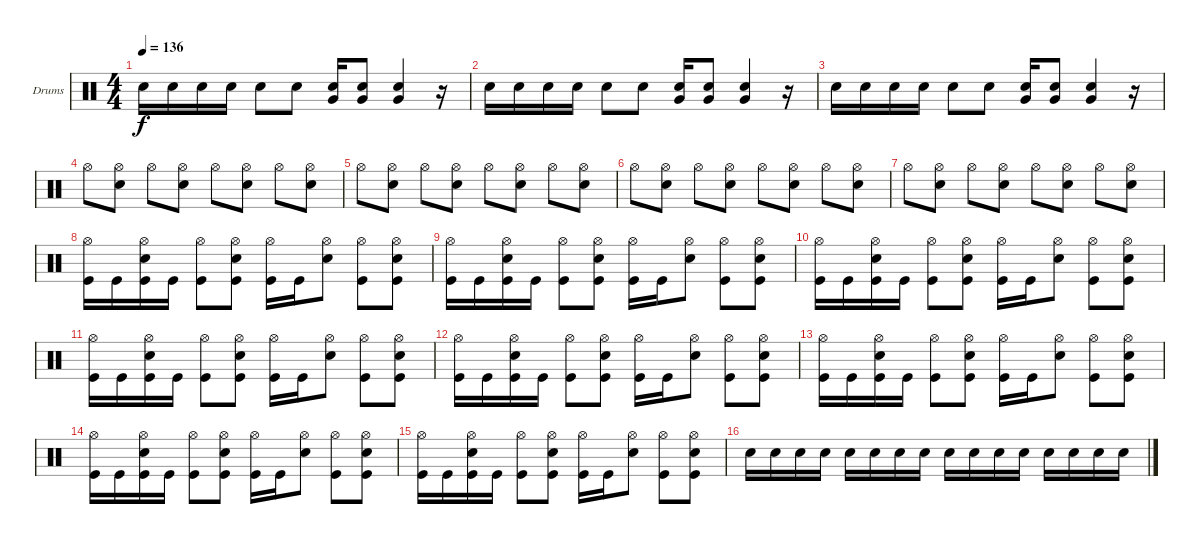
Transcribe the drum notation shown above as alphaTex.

\defaultSystemsLayout 4
\bracketExtendMode groupsimilarinstruments
\firstSystemTrackNameOrientation horizontal
\otherSystemsTrackNameOrientation horizontal
\track ("Lars Ulrich (Drums)" "Drums") {instrument percussion}
\staff {score}
\articulation defaults
\ts (4 4)
\tempo 136
\clef neutral
\ks c "Snare (hit) 2".16{dy f} "Snare (hit) 2".16 "Snare (hit) 2".16 "Snare (hit) 2".16 "Snare (hit) 2".8 "Snare (hit) 2".8
("Snare (hit) 2" "Very Low Tom (hit)").16 ("Snare (hit) 2" "Very Low Tom (hit)").8 ("Snare (hit) 2" "Very Low Tom (hit)").4 r.16 |
"Snare (hit) 2".16 "Snare (hit) 2".16 "Snare (hit) 2".16 "Snare (hit) 2".16 "Snare (hit) 2".8 "Snare (hit) 2".8 ("Snare (hit) 2" "Very Low Tom (hit)").16 ("Snare (hit) 2" "Very Low Tom (hit)").8 ("Snare (hit) 2" "Very Low Tom (hit)").4 r.16 |
"Snare (hit) 2".16 "Snare (hit) 2".16 "Snare (hit) 2".16 "Snare (hit) 2".16 "Snare (hit) 2".8 "Snare (hit) 2".8 ("Snare (hit) 2" "Very Low Tom (hit)").16 ("Snare (hit) 2" "Very Low Tom (hit)").8 ("Snare (hit) 2" "Very Low Tom (hit)").4 r.16 |
"Hi-Hat (open)".8 ("Hi-Hat (open)" "Snare (hit) 2").8 "Hi-Hat (open)".8 ("Hi-Hat (open)" "Snare (hit) 2").8 "Hi-Hat (open)".8 ("Hi-Hat (open)" "Snare (hit) 2").8 "Hi-Hat (open)".8 ("Hi-Hat (open)" "Snare (hit) 2").8 |
"Hi-Hat (open)".8 ("Hi-Hat (open)" "Snare (hit) 2").8 "Hi-Hat (open)".8 ("Hi-Hat (open)" "Snare (hit) 2").8 "Hi-Hat (open)".8 ("Hi-Hat (open)" "Snare (hit) 2").8 "Hi-Hat (open)".8 ("Hi-Hat (open)" "Snare (hit) 2").8 |
"Hi-Hat (open)".8 ("Hi-Hat (open)" "Snare (hit) 2").8 "Hi-Hat (open)".8 ("Hi-Hat (open)" "Snare (hit) 2").8 "Hi-Hat (open)".8 ("Hi-Hat (open)" "Snare (hit) 2").8 "Hi-Hat (open)".8 ("Hi-Hat (open)" "Snare (hit) 2").8 |
"Hi-Hat (open)".8 ("Hi-Hat (open)" "Snare (hit) 2").8 "Hi-Hat (open)".8 ("Hi-Hat (open)" "Snare (hit) 2").8 "Hi-Hat (open)".8 ("Hi-Hat (open)" "Snare (hit) 2").8 "Hi-Hat (open)".8 ("Hi-Hat (open)" "Snare (hit) 2").8 |
("Hi-Hat (open)" "Kick (hit)").16 "Kick (hit)".16 ("Hi-Hat (open)" "Snare (hit) 2" "Kick (hit)").16 "Kick (hit)".16 ("Hi-Hat (open)" "Kick (hit)").8 ("Hi-Hat (open)" "Snare (hit) 2" "Kick (hit)").8 ("Hi-Hat (open)" "Kick (hit)").16 "Kick (hit)".16 ("Hi-Hat (open)" "Snare (hit) 2").8 ("Hi-Hat (open)" "Kick (hit)").8 ("Hi-Hat (open)" "Snare (hit) 2" "Kick (hit)").8 |
("Hi-Hat (open)" "Kick (hit)").16 "Kick (hit)".16 ("Hi-Hat (open)" "Snare (hit) 2" "Kick (hit)").16 "Kick (hit)".16 ("Hi-Hat (open)" "Kick (hit)").8 ("Hi-Hat (open)" "Snare (hit) 2" "Kick (hit)").8 ("Hi-Hat (open)" "Kick (hit)").16 "Kick (hit)".16 ("Hi-Hat (open)" "Snare (hit) 2").8 ("Hi-Hat (open)" "Kick (hit)").8 ("Hi-Hat (open)" "Snare (hit) 2" "Kick (hit)").8 |
("Hi-Hat (open)" "Kick (hit)").16 "Kick (hit)".16 ("Hi-Hat (open)" "Snare (hit) 2" "Kick (hit)").16 "Kick (hit)".16 ("Hi-Hat (open)" "Kick (hit)").8 ("Hi-Hat (open)" "Snare (hit) 2" "Kick (hit)").8 ("Hi-Hat (open)" "Kick (hit)").16 "Kick (hit)".16 ("Hi-Hat (open)" "Snare (hit) 2").8 ("Hi-Hat (open)" "Kick (hit)").8 ("Hi-Hat (open)" "Snare (hit) 2" "Kick (hit)").8 |
("Hi-Hat (open)" "Kick (hit)").16 "Kick (hit)".16 ("Hi-Hat (open)" "Snare (hit) 2" "Kick (hit)").16 "Kick (hit)".16 ("Hi-Hat (open)" "Kick (hit)").8 ("Hi-Hat (open)" "Snare (hit) 2" "Kick (hit)").8 ("Hi-Hat (open)" "Kick (hit)").16 "Kick (hit)".16 ("Hi-Hat (open)" "Snare (hit) 2").8 ("Hi-Hat (open)" "Kick (hit)").8 ("Hi-Hat (open)" "Snare (hit) 2" "Kick (hit)").8 |
("Hi-Hat (open)" "Kick (hit)").16 "Kick (hit)".16 ("Hi-Hat (open)" "Snare (hit) 2" "Kick (hit)").16 "Kick (hit)".16 ("Hi-Hat (open)" "Kick (hit)").8 ("Hi-Hat (open)" "Snare (hit) 2" "Kick (hit)").8 ("Hi-Hat (open)" "Kick (hit)").16 "Kick (hit)".16 ("Hi-Hat (open)" "Snare (hit) 2").8 ("Hi-Hat (open)" "Kick (hit)").8 ("Hi-Hat (open)" "Snare (hit) 2" "Kick (hit)").8 |
("Hi-Hat (open)" "Kick (hit)").16 "Kick (hit)".16 ("Hi-Hat (open)" "Snare (hit) 2" "Kick (hit)").16 "Kick (hit)".16 ("Hi-Hat (open)" "Kick (hit)").8 ("Hi-Hat (open)" "Snare (hit) 2" "Kick (hit)").8 ("Hi-Hat (open)" "Kick (hit)").16 "Kick (hit)".16 ("Hi-Hat (open)" "Snare (hit) 2").8 ("Hi-Hat (open)" "Kick (hit)").8 ("Hi-Hat (open)" "Snare (hit) 2" "Kick (hit)").8 |
("Hi-Hat (open)" "Kick (hit)").16 "Kick (hit)".16 ("Hi-Hat (open)" "Snare (hit) 2" "Kick (hit)").16 "Kick (hit)".16 ("Hi-Hat (open)" "Kick (hit)").8 ("Hi-Hat (open)" "Snare (hit) 2" "Kick (hit)").8 ("Hi-Hat (open)" "Kick (hit)").16 "Kick (hit)".16 ("Hi-Hat (open)" "Snare (hit) 2").8 ("Hi-Hat (open)" "Kick (hit)").8 ("Hi-Hat (open)" "Snare (hit) 2" "Kick (hit)").8 |
("Hi-Hat (open)" "Kick (hit)").16 "Kick (hit)".16 ("Hi-Hat (open)" "Snare (hit) 2" "Kick (hit)").16 "Kick (hit)".16 ("Hi-Hat (open)" "Kick (hit)").8 ("Hi-Hat (open)" "Snare (hit) 2" "Kick (hit)").8 ("Hi-Hat (open)" "Kick (hit)").16 "Kick (hit)".16 ("Hi-Hat (open)" "Snare (hit) 2").8 ("Hi-Hat (open)" "Kick (hit)").8 ("Hi-Hat (open)" "Snare (hit) 2" "Kick (hit)").8 |
"Snare (hit) 2".16 "Snare (hit) 2".16 "Snare (hit) 2".16 "Snare (hit) 2".16 "Snare (hit) 2".16 "Snare (hit) 2".16 "Snare (hit) 2".16 "Snare (hit) 2".16 "Snare (hit) 2".16 "Snare (hit) 2".16 "Snare (hit) 2".16 "Snare (hit) 2".16 "Snare (hit) 2".16 "Snare (hit) 2".16 "Snare (hit) 2".16 "Snare (hit) 2".16
